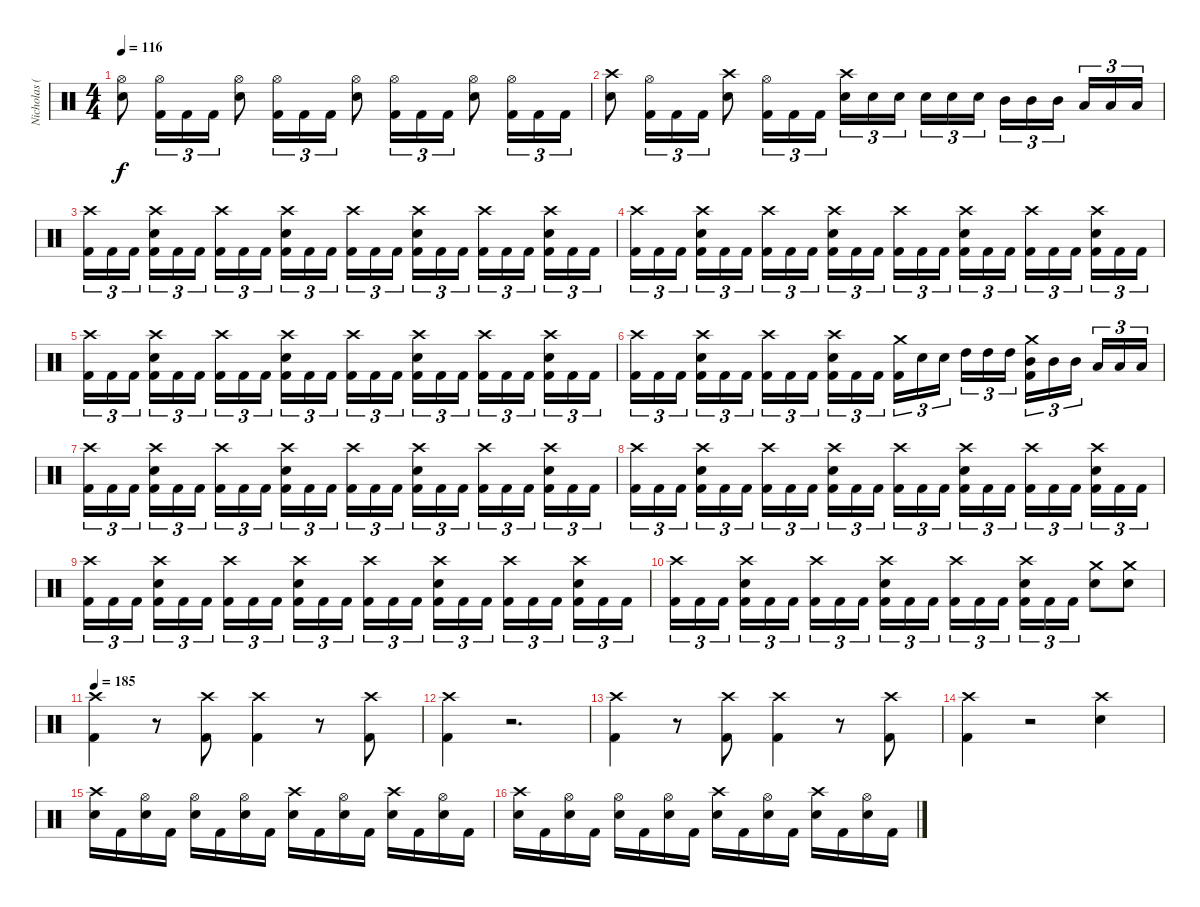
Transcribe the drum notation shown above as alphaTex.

\track ("Nicholas (Drums)" "Nicholas (") {instrument percussion}
\staff {score}
\articulation defaults
\ts (4 4)
\tempo 116
\clef neutral
\ks c
("Hi-Hat (open)" "Electric Snare (hit)").8{dy f} ("Hi-Hat (open)" "Kick (hit) 2").16{tu (3 2)} "Kick (hit) 2".16{tu (3 2)} "Kick (hit) 2".16{tu (3 2)} ("Hi-Hat (open)" "Electric Snare (hit)").8 ("Hi-Hat (open)" "Kick (hit) 2").16{tu (3 2)} "Kick (hit) 2".16{tu (3 2)} "Kick (hit) 2".16{tu (3 2)} ("Hi-Hat (open)" "Electric Snare (hit)").8 ("Hi-Hat (open)" "Kick (hit) 2").16{tu (3 2)} "Kick (hit) 2".16{tu (3 2)} "Kick (hit) 2".16{tu (3 2)} ("Hi-Hat (open)" "Electric Snare (hit)").8 ("Hi-Hat (open)" "Kick (hit) 2").16{tu (3 2)} "Kick (hit) 2".16{tu (3 2)} "Kick (hit) 2".16{tu (3 2)} |
("Crash high (hit)" "Electric Snare (hit)").8 ("Hi-Hat (open)" "Kick (hit) 2").16{tu (3 2)} "Kick (hit) 2".16{tu (3 2)} "Kick (hit) 2".16{tu (3 2)} ("Crash high (hit)" "Electric Snare (hit)").8 ("Hi-Hat (open)" "Kick (hit) 2").16{tu (3 2)} "Kick (hit) 2".16{tu (3 2)} "Kick (hit) 2".16{tu (3 2)} ("Crash high (hit)" "Electric Snare (hit)").16{tu (3 2)} "Electric Snare (hit)".16{tu (3 2)} "Electric Snare (hit)".16{tu (3 2)} "Electric Snare (hit)".16{tu (3 2)} "Electric Snare (hit)".16{tu (3 2)} "Electric Snare (hit)".16{tu (3 2)} "Mid Tom (hit)".16{tu (3 2)} "Mid Tom (hit)".16{tu (3 2)} "Mid Tom (hit)".16{tu (3 2)} "Low Tom (hit)".16{tu (3 2)} "Low Tom (hit)".16{tu (3 2)} "Low Tom (hit)".16{tu (3 2)} |
("Crash high (hit)" "Kick (hit) 2").16{tu (3 2)} "Kick (hit) 2".16{tu (3 2)} "Kick (hit) 2".16{tu (3 2)} ("Crash high (hit)" "Electric Snare (hit)" "Kick (hit) 2").16{tu (3 2)} "Kick (hit) 2".16{tu (3 2)} "Kick (hit) 2".16{tu (3 2)} ("Crash high (hit)" "Kick (hit) 2").16{tu (3 2)} "Kick (hit) 2".16{tu (3 2)} "Kick (hit) 2".16{tu (3 2)} ("Crash high (hit)" "Electric Snare (hit)" "Kick (hit) 2").16{tu (3 2)} "Kick (hit) 2".16{tu (3 2)} "Kick (hit) 2".16{tu (3 2)} ("Crash high (hit)" "Kick (hit) 2").16{tu (3 2)} "Kick (hit) 2".16{tu (3 2)} "Kick (hit) 2".16{tu (3 2)} ("Crash high (hit)" "Electric Snare (hit)" "Kick (hit) 2").16{tu (3 2)} "Kick (hit) 2".16{tu (3 2)} "Kick (hit) 2".16{tu (3 2)} ("Crash high (hit)" "Kick (hit) 2").16{tu (3 2)} "Kick (hit) 2".16{tu (3 2)} "Kick (hit) 2".16{tu (3 2)} ("Crash high (hit)" "Electric Snare (hit)" "Kick (hit) 2").16{tu (3 2)} "Kick (hit) 2".16{tu (3 2)} "Kick (hit) 2".16{tu (3 2)} |
("Crash high (hit)" "Kick (hit) 2").16{tu (3 2)} "Kick (hit) 2".16{tu (3 2)} "Kick (hit) 2".16{tu (3 2)} ("Crash high (hit)" "Electric Snare (hit)" "Kick (hit) 2").16{tu (3 2)} "Kick (hit) 2".16{tu (3 2)} "Kick (hit) 2".16{tu (3 2)} ("Crash high (hit)" "Kick (hit) 2").16{tu (3 2)} "Kick (hit) 2".16{tu (3 2)} "Kick (hit) 2".16{tu (3 2)} ("Crash high (hit)" "Electric Snare (hit)" "Kick (hit) 2").16{tu (3 2)} "Kick (hit) 2".16{tu (3 2)} "Kick (hit) 2".16{tu (3 2)} ("Crash high (hit)" "Kick (hit) 2").16{tu (3 2)} "Kick (hit) 2".16{tu (3 2)} "Kick (hit) 2".16{tu (3 2)} ("Crash high (hit)" "Electric Snare (hit)" "Kick (hit) 2").16{tu (3 2)} "Kick (hit) 2".16{tu (3 2)} "Kick (hit) 2".16{tu (3 2)} ("Crash high (hit)" "Kick (hit) 2").16{tu (3 2)} "Kick (hit) 2".16{tu (3 2)} "Kick (hit) 2".16{tu (3 2)} ("Crash high (hit)" "Electric Snare (hit)" "Kick (hit) 2").16{tu (3 2)} "Kick (hit) 2".16{tu (3 2)} "Kick (hit) 2".16{tu (3 2)} |
("Crash high (hit)" "Kick (hit) 2").16{tu (3 2)} "Kick (hit) 2".16{tu (3 2)} "Kick (hit) 2".16{tu (3 2)} ("Crash high (hit)" "Electric Snare (hit)" "Kick (hit) 2").16{tu (3 2)} "Kick (hit) 2".16{tu (3 2)} "Kick (hit) 2".16{tu (3 2)} ("Crash high (hit)" "Kick (hit) 2").16{tu (3 2)} "Kick (hit) 2".16{tu (3 2)} "Kick (hit) 2".16{tu (3 2)} ("Crash high (hit)" "Electric Snare (hit)" "Kick (hit) 2").16{tu (3 2)} "Kick (hit) 2".16{tu (3 2)} "Kick (hit) 2".16{tu (3 2)} ("Crash high (hit)" "Kick (hit) 2").16{tu (3 2)} "Kick (hit) 2".16{tu (3 2)} "Kick (hit) 2".16{tu (3 2)} ("Crash high (hit)" "Electric Snare (hit)" "Kick (hit) 2").16{tu (3 2)} "Kick (hit) 2".16{tu (3 2)} "Kick (hit) 2".16{tu (3 2)} ("Crash high (hit)" "Kick (hit) 2").16{tu (3 2)} "Kick (hit) 2".16{tu (3 2)} "Kick (hit) 2".16{tu (3 2)} ("Crash high (hit)" "Electric Snare (hit)" "Kick (hit) 2").16{tu (3 2)} "Kick (hit) 2".16{tu (3 2)} "Kick (hit) 2".16{tu (3 2)} |
("Crash high (hit)" "Kick (hit) 2").16{tu (3 2)} "Kick (hit) 2".16{tu (3 2)} "Kick (hit) 2".16{tu (3 2)} ("Crash high (hit)" "Electric Snare (hit)" "Kick (hit) 2").16{tu (3 2)} "Kick (hit) 2".16{tu (3 2)} "Kick (hit) 2".16{tu (3 2)} ("Crash high (hit)" "Kick (hit) 2").16{tu (3 2)} "Kick (hit) 2".16{tu (3 2)} "Kick (hit) 2".16{tu (3 2)} ("Crash high (hit)" "Electric Snare (hit)" "Kick (hit) 2").16{tu (3 2)} "Kick (hit) 2".16{tu (3 2)} "Kick (hit) 2".16{tu (3 2)} ("Crash medium (hit)" "Kick (hit) 2").16{tu (3 2)} "Electric Snare (hit)".16{tu (3 2)} "Electric Snare (hit)".16{tu (3 2)} "High Tom (hit)".16{tu (3 2)} "High Tom (hit)".16{tu (3 2)} "High Tom (hit)".16{tu (3 2)} ("Crash medium (hit)" "Mid Tom (hit)" "Kick (hit) 2").16{tu (3 2)} "Mid Tom (hit)".16{tu (3 2)} "Mid Tom (hit)".16{tu (3 2)} "Low Tom (hit)".16{tu (3 2)} "Low Tom (hit)".16{tu (3 2)} "Low Tom (hit)".16{tu (3 2)} |
("Crash high (hit)" "Kick (hit) 2").16{tu (3 2)} "Kick (hit) 2".16{tu (3 2)} "Kick (hit) 2".16{tu (3 2)} ("Crash high (hit)" "Electric Snare (hit)" "Kick (hit) 2").16{tu (3 2)} "Kick (hit) 2".16{tu (3 2)} "Kick (hit) 2".16{tu (3 2)} ("Crash high (hit)" "Kick (hit) 2").16{tu (3 2)} "Kick (hit) 2".16{tu (3 2)} "Kick (hit) 2".16{tu (3 2)} ("Crash high (hit)" "Electric Snare (hit)" "Kick (hit) 2").16{tu (3 2)} "Kick (hit) 2".16{tu (3 2)} "Kick (hit) 2".16{tu (3 2)} ("Crash high (hit)" "Kick (hit) 2").16{tu (3 2)} "Kick (hit) 2".16{tu (3 2)} "Kick (hit) 2".16{tu (3 2)} ("Crash high (hit)" "Electric Snare (hit)" "Kick (hit) 2").16{tu (3 2)} "Kick (hit) 2".16{tu (3 2)} "Kick (hit) 2".16{tu (3 2)} ("Crash high (hit)" "Kick (hit) 2").16{tu (3 2)} "Kick (hit) 2".16{tu (3 2)} "Kick (hit) 2".16{tu (3 2)} ("Crash high (hit)" "Electric Snare (hit)" "Kick (hit) 2").16{tu (3 2)} "Kick (hit) 2".16{tu (3 2)} "Kick (hit) 2".16{tu (3 2)} |
("Crash high (hit)" "Kick (hit) 2").16{tu (3 2)} "Kick (hit) 2".16{tu (3 2)} "Kick (hit) 2".16{tu (3 2)} ("Crash high (hit)" "Electric Snare (hit)" "Kick (hit) 2").16{tu (3 2)} "Kick (hit) 2".16{tu (3 2)} "Kick (hit) 2".16{tu (3 2)} ("Crash high (hit)" "Kick (hit) 2").16{tu (3 2)} "Kick (hit) 2".16{tu (3 2)} "Kick (hit) 2".16{tu (3 2)} ("Crash high (hit)" "Electric Snare (hit)" "Kick (hit) 2").16{tu (3 2)} "Kick (hit) 2".16{tu (3 2)} "Kick (hit) 2".16{tu (3 2)} ("Crash high (hit)" "Kick (hit) 2").16{tu (3 2)} "Kick (hit) 2".16{tu (3 2)} "Kick (hit) 2".16{tu (3 2)} ("Crash high (hit)" "Electric Snare (hit)" "Kick (hit) 2").16{tu (3 2)} "Kick (hit) 2".16{tu (3 2)} "Kick (hit) 2".16{tu (3 2)} ("Crash high (hit)" "Kick (hit) 2").16{tu (3 2)} "Kick (hit) 2".16{tu (3 2)} "Kick (hit) 2".16{tu (3 2)} ("Crash high (hit)" "Electric Snare (hit)" "Kick (hit) 2").16{tu (3 2)} "Kick (hit) 2".16{tu (3 2)} "Kick (hit) 2".16{tu (3 2)} |
("Crash high (hit)" "Kick (hit) 2").16{tu (3 2)} "Kick (hit) 2".16{tu (3 2)} "Kick (hit) 2".16{tu (3 2)} ("Crash high (hit)" "Electric Snare (hit)" "Kick (hit) 2").16{tu (3 2)} "Kick (hit) 2".16{tu (3 2)} "Kick (hit) 2".16{tu (3 2)} ("Crash high (hit)" "Kick (hit) 2").16{tu (3 2)} "Kick (hit) 2".16{tu (3 2)} "Kick (hit) 2".16{tu (3 2)} ("Crash high (hit)" "Electric Snare (hit)" "Kick (hit) 2").16{tu (3 2)} "Kick (hit) 2".16{tu (3 2)} "Kick (hit) 2".16{tu (3 2)} ("Crash high (hit)" "Kick (hit) 2").16{tu (3 2)} "Kick (hit) 2".16{tu (3 2)} "Kick (hit) 2".16{tu (3 2)} ("Crash high (hit)" "Electric Snare (hit)" "Kick (hit) 2").16{tu (3 2)} "Kick (hit) 2".16{tu (3 2)} "Kick (hit) 2".16{tu (3 2)} ("Crash high (hit)" "Kick (hit) 2").16{tu (3 2)} "Kick (hit) 2".16{tu (3 2)} "Kick (hit) 2".16{tu (3 2)} ("Crash high (hit)" "Electric Snare (hit)" "Kick (hit) 2").16{tu (3 2)} "Kick (hit) 2".16{tu (3 2)} "Kick (hit) 2".16{tu (3 2)} |
("Crash high (hit)" "Kick (hit) 2").16{tu (3 2)} "Kick (hit) 2".16{tu (3 2)} "Kick (hit) 2".16{tu (3 2)} ("Crash high (hit)" "Electric Snare (hit)" "Kick (hit) 2").16{tu (3 2)} "Kick (hit) 2".16{tu (3 2)} "Kick (hit) 2".16{tu (3 2)} ("Crash high (hit)" "Kick (hit) 2").16{tu (3 2)} "Kick (hit) 2".16{tu (3 2)} "Kick (hit) 2".16{tu (3 2)} ("Crash high (hit)" "Electric Snare (hit)" "Kick (hit) 2").16{tu (3 2)} "Kick (hit) 2".16{tu (3 2)} "Kick (hit) 2".16{tu (3 2)} ("Crash high (hit)" "Kick (hit) 2").16{tu (3 2)} "Kick (hit) 2".16{tu (3 2)} "Kick (hit) 2".16{tu (3 2)} ("Crash high (hit)" "Electric Snare (hit)" "Kick (hit) 2").16{tu (3 2)} "Kick (hit) 2".16{tu (3 2)} "Kick (hit) 2".16{tu (3 2)} ("Crash medium (hit)" "Electric Snare (hit)").8 ("Crash medium (hit)" "Electric Snare (hit)").8 |
\tempo 185
("Crash high (hit)" "Kick (hit) 2").4 r.8 ("Crash high (hit)" "Kick (hit) 2").8 ("Crash high (hit)" "Kick (hit) 2").4 r.8 ("Crash high (hit)" "Kick (hit) 2").8 |
("Crash high (hit)" "Kick (hit) 2").4 r.2{d} |
("Crash high (hit)" "Kick (hit) 2").4 r.8 ("Crash high (hit)" "Kick (hit) 2").8 ("Crash high (hit)" "Kick (hit) 2").4 r.8 ("Crash high (hit)" "Kick (hit) 2").8 |
("Crash high (hit)" "Kick (hit) 2").4 r.2 ("Crash high (hit)" "Electric Snare (hit)").4 |
("Crash high (hit)" "Electric Snare (hit)").16 "Kick (hit) 2".16 ("Hi-Hat (open)" "Electric Snare (hit)").16 "Kick (hit) 2".16 ("Hi-Hat (open)" "Electric Snare (hit)").16 "Kick (hit) 2".16 ("Hi-Hat (open)" "Electric Snare (hit)").16 "Kick (hit) 2".16 ("Crash high (hit)" "Electric Snare (hit)").16 "Kick (hit) 2".16 ("Hi-Hat (open)" "Electric Snare (hit)").16 "Kick (hit) 2".16 ("Crash high (hit)" "Electric Snare (hit)").16 "Kick (hit) 2".16 ("Hi-Hat (open)" "Electric Snare (hit)").16 "Kick (hit) 2".16 |
("Crash high (hit)" "Electric Snare (hit)").16 "Kick (hit) 2".16 ("Hi-Hat (open)" "Electric Snare (hit)").16 "Kick (hit) 2".16 ("Hi-Hat (open)" "Electric Snare (hit)").16 "Kick (hit) 2".16 ("Hi-Hat (open)" "Electric Snare (hit)").16 "Kick (hit) 2".16 ("Crash high (hit)" "Electric Snare (hit)").16 "Kick (hit) 2".16 ("Hi-Hat (open)" "Electric Snare (hit)").16 "Kick (hit) 2".16 ("Crash high (hit)" "Electric Snare (hit)").16 "Kick (hit) 2".16 ("Hi-Hat (open)" "Electric Snare (hit)").16 "Kick (hit) 2".16
